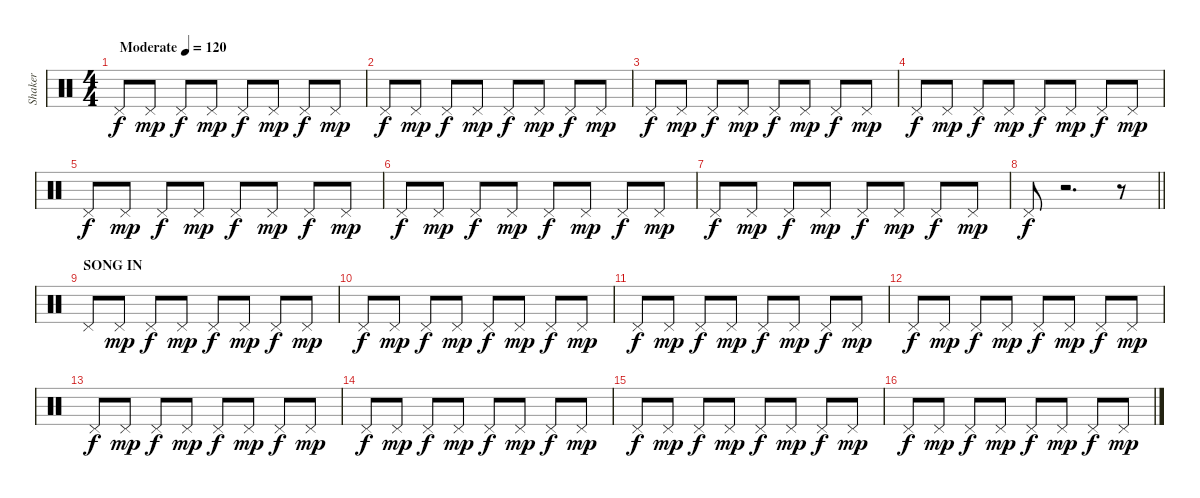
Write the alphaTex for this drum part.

\track ("Shaker" "Shaker") {instrument percussion}
\staff {score}
\articulation defaults
\ts (4 4)
\tempo (120 "Moderate")
\clef neutral
\ks c "Pedal Hi-Hat (hit)".8{dy f} "Pedal Hi-Hat (hit)".8{dy mp} "Pedal Hi-Hat (hit)".8{dy f} "Pedal Hi-Hat (hit)".8{dy mp} "Pedal Hi-Hat (hit)".8{dy f} "Pedal Hi-Hat (hit)".8{dy mp} "Pedal Hi-Hat (hit)".8{dy f} "Pedal Hi-Hat (hit)".8{dy mp}
|
"Pedal Hi-Hat (hit)".8{dy f} "Pedal Hi-Hat (hit)".8{dy mp} "Pedal Hi-Hat (hit)".8{dy f} "Pedal Hi-Hat (hit)".8{dy mp} "Pedal Hi-Hat (hit)".8{dy f} "Pedal Hi-Hat (hit)".8{dy mp} "Pedal Hi-Hat (hit)".8{dy f} "Pedal Hi-Hat (hit)".8{dy mp} |
"Pedal Hi-Hat (hit)".8{dy f} "Pedal Hi-Hat (hit)".8{dy mp} "Pedal Hi-Hat (hit)".8{dy f} "Pedal Hi-Hat (hit)".8{dy mp} "Pedal Hi-Hat (hit)".8{dy f} "Pedal Hi-Hat (hit)".8{dy mp} "Pedal Hi-Hat (hit)".8{dy f} "Pedal Hi-Hat (hit)".8{dy mp} |
"Pedal Hi-Hat (hit)".8{dy f} "Pedal Hi-Hat (hit)".8{dy mp} "Pedal Hi-Hat (hit)".8{dy f} "Pedal Hi-Hat (hit)".8{dy mp} "Pedal Hi-Hat (hit)".8{dy f} "Pedal Hi-Hat (hit)".8{dy mp} "Pedal Hi-Hat (hit)".8{dy f} "Pedal Hi-Hat (hit)".8{dy mp} |
"Pedal Hi-Hat (hit)".8{dy f} "Pedal Hi-Hat (hit)".8{dy mp} "Pedal Hi-Hat (hit)".8{dy f} "Pedal Hi-Hat (hit)".8{dy mp} "Pedal Hi-Hat (hit)".8{dy f} "Pedal Hi-Hat (hit)".8{dy mp} "Pedal Hi-Hat (hit)".8{dy f} "Pedal Hi-Hat (hit)".8{dy mp} |
"Pedal Hi-Hat (hit)".8{dy f} "Pedal Hi-Hat (hit)".8{dy mp} "Pedal Hi-Hat (hit)".8{dy f} "Pedal Hi-Hat (hit)".8{dy mp} "Pedal Hi-Hat (hit)".8{dy f} "Pedal Hi-Hat (hit)".8{dy mp} "Pedal Hi-Hat (hit)".8{dy f} "Pedal Hi-Hat (hit)".8{dy mp} |
"Pedal Hi-Hat (hit)".8{dy f} "Pedal Hi-Hat (hit)".8{dy mp} "Pedal Hi-Hat (hit)".8{dy f} "Pedal Hi-Hat (hit)".8{dy mp} "Pedal Hi-Hat (hit)".8{dy f} "Pedal Hi-Hat (hit)".8{dy mp} "Pedal Hi-Hat (hit)".8{dy f} "Pedal Hi-Hat (hit)".8{dy mp} |
\barLineRight lightlight "Pedal Hi-Hat (hit)".8{dy f}
r.2{d} r.8 |
\section ("" "SONG IN")
"Pedal Hi-Hat (hit)".8 "Pedal Hi-Hat (hit)".8{dy mp} "Pedal Hi-Hat (hit)".8{dy f} "Pedal Hi-Hat (hit)".8{dy mp} "Pedal Hi-Hat (hit)".8{dy f} "Pedal Hi-Hat (hit)".8{dy mp} "Pedal Hi-Hat (hit)".8{dy f} "Pedal Hi-Hat (hit)".8{dy mp} |
"Pedal Hi-Hat (hit)".8{dy f} "Pedal Hi-Hat (hit)".8{dy mp} "Pedal Hi-Hat (hit)".8{dy f} "Pedal Hi-Hat (hit)".8{dy mp} "Pedal Hi-Hat (hit)".8{dy f} "Pedal Hi-Hat (hit)".8{dy mp} "Pedal Hi-Hat (hit)".8{dy f} "Pedal Hi-Hat (hit)".8{dy mp} |
"Pedal Hi-Hat (hit)".8{dy f} "Pedal Hi-Hat (hit)".8{dy mp} "Pedal Hi-Hat (hit)".8{dy f} "Pedal Hi-Hat (hit)".8{dy mp} "Pedal Hi-Hat (hit)".8{dy f} "Pedal Hi-Hat (hit)".8{dy mp} "Pedal Hi-Hat (hit)".8{dy f} "Pedal Hi-Hat (hit)".8{dy mp} |
"Pedal Hi-Hat (hit)".8{dy f} "Pedal Hi-Hat (hit)".8{dy mp} "Pedal Hi-Hat (hit)".8{dy f} "Pedal Hi-Hat (hit)".8{dy mp} "Pedal Hi-Hat (hit)".8{dy f} "Pedal Hi-Hat (hit)".8{dy mp} "Pedal Hi-Hat (hit)".8{dy f} "Pedal Hi-Hat (hit)".8{dy mp} |
"Pedal Hi-Hat (hit)".8{dy f} "Pedal Hi-Hat (hit)".8{dy mp} "Pedal Hi-Hat (hit)".8{dy f} "Pedal Hi-Hat (hit)".8{dy mp} "Pedal Hi-Hat (hit)".8{dy f} "Pedal Hi-Hat (hit)".8{dy mp} "Pedal Hi-Hat (hit)".8{dy f} "Pedal Hi-Hat (hit)".8{dy mp} |
"Pedal Hi-Hat (hit)".8{dy f} "Pedal Hi-Hat (hit)".8{dy mp} "Pedal Hi-Hat (hit)".8{dy f} "Pedal Hi-Hat (hit)".8{dy mp} "Pedal Hi-Hat (hit)".8{dy f} "Pedal Hi-Hat (hit)".8{dy mp} "Pedal Hi-Hat (hit)".8{dy f} "Pedal Hi-Hat (hit)".8{dy mp} |
"Pedal Hi-Hat (hit)".8{dy f} "Pedal Hi-Hat (hit)".8{dy mp} "Pedal Hi-Hat (hit)".8{dy f} "Pedal Hi-Hat (hit)".8{dy mp} "Pedal Hi-Hat (hit)".8{dy f} "Pedal Hi-Hat (hit)".8{dy mp} "Pedal Hi-Hat (hit)".8{dy f} "Pedal Hi-Hat (hit)".8{dy mp} |
"Pedal Hi-Hat (hit)".8{dy f} "Pedal Hi-Hat (hit)".8{dy mp} "Pedal Hi-Hat (hit)".8{dy f} "Pedal Hi-Hat (hit)".8{dy mp} "Pedal Hi-Hat (hit)".8{dy f} "Pedal Hi-Hat (hit)".8{dy mp} "Pedal Hi-Hat (hit)".8{dy f} "Pedal Hi-Hat (hit)".8{dy mp}
